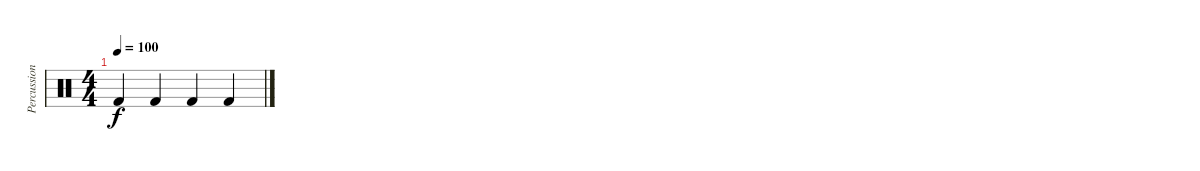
\track ("Percussion" "Percussion") {instrument percussion}
\staff {score}
\articulation defaults
\ts (4 4)
\tempo 100
\clef neutral
\ks c "Kick (hit) 2".4{dy f} "Kick (hit) 2".4 "Kick (hit) 2".4 "Kick (hit) 2".4
